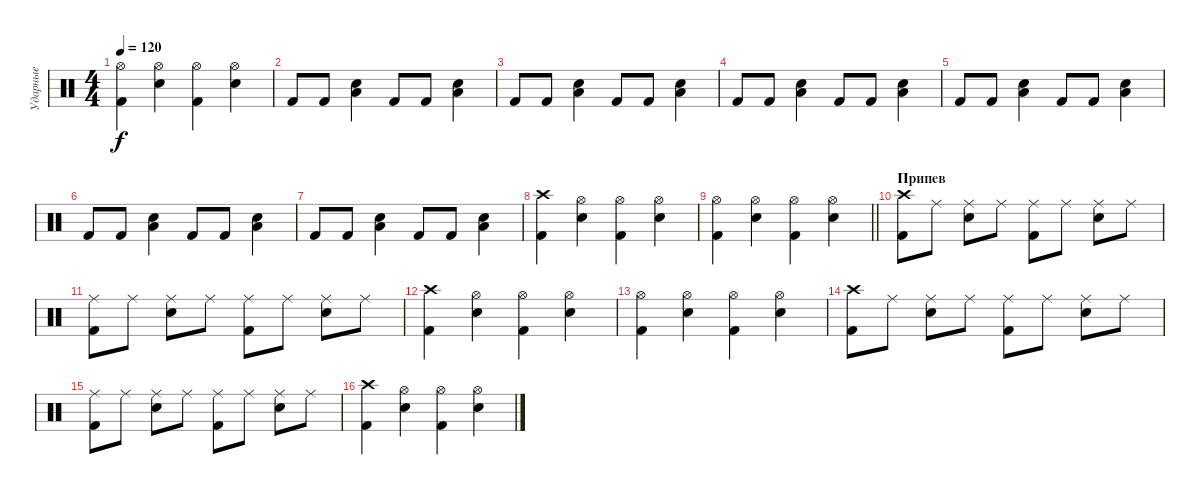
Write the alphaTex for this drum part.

\track ("Ударные" "Ударные") {instrument percussion}
\staff {score}
\articulation defaults
\ts (4 4)
\tempo 120
\clef neutral
\ks c
("Hi-Hat (open)" "Kick (hit) 2").4{dy f} ("Hi-Hat (open)" "Snare (hit) 2").4 ("Hi-Hat (open)" "Kick (hit) 2").4 ("Hi-Hat (open)" "Snare (hit) 2").4 |
"Kick (hit) 2".8 "Kick (hit) 2".8 ("Low Tom (hit)" "Snare (hit) 2").4 "Kick (hit) 2".8 "Kick (hit) 2".8 ("Low Tom (hit)" "Snare (hit) 2").4 |
"Kick (hit) 2".8 "Kick (hit) 2".8 ("Low Tom (hit)" "Snare (hit) 2").4 "Kick (hit) 2".8 "Kick (hit) 2".8 ("Low Tom (hit)" "Snare (hit) 2").4 |
"Kick (hit) 2".8 "Kick (hit) 2".8 ("Low Tom (hit)" "Snare (hit) 2").4 "Kick (hit) 2".8 "Kick (hit) 2".8 ("Low Tom (hit)" "Snare (hit) 2").4 |
"Kick (hit) 2".8 "Kick (hit) 2".8 ("Low Tom (hit)" "Snare (hit) 2").4 "Kick (hit) 2".8 "Kick (hit) 2".8 ("Low Tom (hit)" "Snare (hit) 2").4 |
"Kick (hit) 2".8 "Kick (hit) 2".8 ("Low Tom (hit)" "Snare (hit) 2").4 "Kick (hit) 2".8 "Kick (hit) 2".8 ("Low Tom (hit)" "Snare (hit) 2").4 |
"Kick (hit) 2".8 "Kick (hit) 2".8 ("Low Tom (hit)" "Snare (hit) 2").4 "Kick (hit) 2".8 "Kick (hit) 2".8 ("Low Tom (hit)" "Snare (hit) 2").4 |
("Crash high (hit)" "Kick (hit) 2").4 ("Hi-Hat (open)" "Snare (hit) 2").4 ("Hi-Hat (open)" "Kick (hit) 2").4 ("Hi-Hat (open)" "Snare (hit) 2").4 |
\barLineRight lightlight
("Hi-Hat (open)" "Kick (hit) 2").4 ("Hi-Hat (open)" "Snare (hit) 2").4 ("Hi-Hat (open)" "Kick (hit) 2").4 ("Hi-Hat (open)" "Snare (hit) 2").4 |
\section ("" "Припев")
("Crash high (hit)" "Kick (hit) 2").8 "Ride (middle)".8 ("Ride (middle)" "Snare (hit) 2").8 "Ride (middle)".8 ("Ride (middle)" "Kick (hit) 2").8 "Ride (middle)".8 ("Ride (middle)" "Snare (hit) 2").8 "Ride (middle)".8 |
("Ride (middle)" "Kick (hit) 2").8 "Ride (middle)".8 ("Ride (middle)" "Snare (hit) 2").8 "Ride (middle)".8 ("Ride (middle)" "Kick (hit) 2").8 "Ride (middle)".8 ("Ride (middle)" "Snare (hit) 2").8 "Ride (middle)".8 |
("Crash high (hit)" "Kick (hit) 2").4 ("Hi-Hat (open)" "Snare (hit) 2").4 ("Hi-Hat (open)" "Kick (hit) 2").4 ("Hi-Hat (open)" "Snare (hit) 2").4 |
("Hi-Hat (open)" "Kick (hit) 2").4 ("Hi-Hat (open)" "Snare (hit) 2").4 ("Hi-Hat (open)" "Kick (hit) 2").4 ("Hi-Hat (open)" "Snare (hit) 2").4 |
("Crash high (hit)" "Kick (hit) 2").8 "Ride (middle)".8 ("Ride (middle)" "Snare (hit) 2").8 "Ride (middle)".8 ("Ride (middle)" "Kick (hit) 2").8 "Ride (middle)".8 ("Ride (middle)" "Snare (hit) 2").8 "Ride (middle)".8 |
("Ride (middle)" "Kick (hit) 2").8 "Ride (middle)".8 ("Ride (middle)" "Snare (hit) 2").8 "Ride (middle)".8 ("Ride (middle)" "Kick (hit) 2").8 "Ride (middle)".8 ("Ride (middle)" "Snare (hit) 2").8 "Ride (middle)".8 |
("Crash high (hit)" "Kick (hit) 2").4 ("Hi-Hat (open)" "Snare (hit) 2").4 ("Hi-Hat (open)" "Kick (hit) 2").4 ("Hi-Hat (open)" "Snare (hit) 2").4
